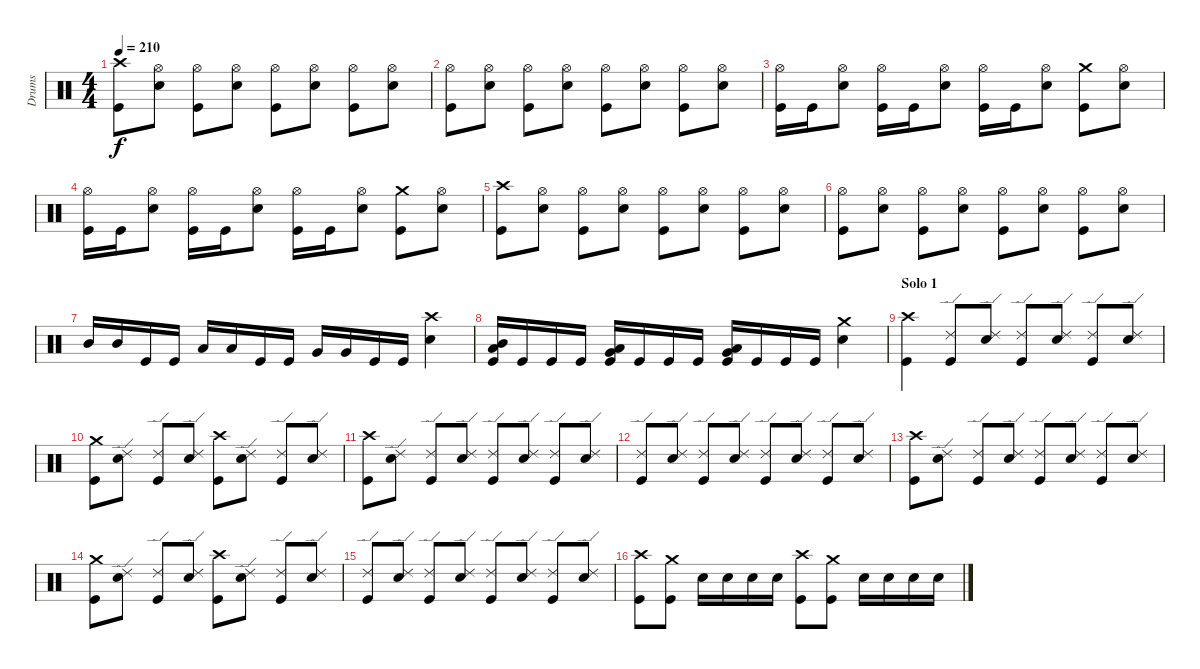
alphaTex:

\track ("Drums" "Drums") {instrument percussion}
\staff {score}
\articulation defaults
\ts (4 4)
\tempo 210
\clef neutral
\ks c
("Crash high (hit)" "Kick (hit)").8{dy f} ("Hi-Hat (open)" "Snare (hit) 2").8 ("Hi-Hat (open)" "Kick (hit)").8 ("Hi-Hat (open)" "Snare (hit) 2").8 ("Hi-Hat (open)" "Kick (hit)").8 ("Hi-Hat (open)" "Snare (hit) 2").8 ("Hi-Hat (open)" "Kick (hit)").8 ("Hi-Hat (open)" "Snare (hit) 2").8 |
("Hi-Hat (open)" "Kick (hit)").8 ("Hi-Hat (open)" "Snare (hit) 2").8 ("Hi-Hat (open)" "Kick (hit)").8 ("Hi-Hat (open)" "Snare (hit) 2").8 ("Hi-Hat (open)" "Kick (hit)").8 ("Hi-Hat (open)" "Snare (hit) 2").8 ("Hi-Hat (open)" "Kick (hit)").8 ("Hi-Hat (open)" "Snare (hit) 2").8 |
("Hi-Hat (open)" "Kick (hit)").16 "Kick (hit)".16 ("Hi-Hat (open)" "Snare (hit) 2").8 ("Hi-Hat (open)" "Kick (hit)").16 "Kick (hit)".16 ("Hi-Hat (open)" "Snare (hit) 2").8 ("Hi-Hat (open)" "Kick (hit)").16 "Kick (hit)".16 ("Hi-Hat (open)" "Snare (hit) 2").8 ("Crash medium (hit)" "Kick (hit)").8 ("Hi-Hat (open)" "Snare (hit) 2").8 |
("Hi-Hat (open)" "Kick (hit)").16 "Kick (hit)".16 ("Hi-Hat (open)" "Snare (hit) 2").8 ("Hi-Hat (open)" "Kick (hit)").16 "Kick (hit)".16 ("Hi-Hat (open)" "Snare (hit) 2").8 ("Hi-Hat (open)" "Kick (hit)").16 "Kick (hit)".16 ("Hi-Hat (open)" "Snare (hit) 2").8 ("Crash medium (hit)" "Kick (hit)").8 ("Hi-Hat (open)" "Snare (hit) 2").8 |
("Crash high (hit)" "Kick (hit)").8 ("Hi-Hat (open)" "Snare (hit) 2").8 ("Hi-Hat (open)" "Kick (hit)").8 ("Hi-Hat (open)" "Snare (hit) 2").8 ("Hi-Hat (open)" "Kick (hit)").8 ("Hi-Hat (open)" "Snare (hit) 2").8 ("Hi-Hat (open)" "Kick (hit)").8 ("Hi-Hat (open)" "Snare (hit) 2").8 |
("Hi-Hat (open)" "Kick (hit)").8 ("Hi-Hat (open)" "Snare (hit) 2").8 ("Hi-Hat (open)" "Kick (hit)").8 ("Hi-Hat (open)" "Snare (hit) 2").8 ("Hi-Hat (open)" "Kick (hit)").8 ("Hi-Hat (open)" "Snare (hit) 2").8 ("Hi-Hat (open)" "Kick (hit)").8 ("Hi-Hat (open)" "Snare (hit) 2").8 |
"Mid Tom (hit)".16 "Mid Tom (hit)".16 "Kick (hit)".16 "Kick (hit)".16 "Low Tom (hit)".16 "Low Tom (hit)".16 "Kick (hit)".16 "Kick (hit)".16 "Very Low Tom (hit)".16 "Very Low Tom (hit)".16 "Kick (hit)".16 "Kick (hit)".16 ("Crash high (hit)" "Snare (hit) 2").4 |
("Mid Tom (hit)" "Low Tom (hit)" "Kick (hit)").16 "Kick (hit)".16 "Kick (hit)".16 "Kick (hit)".16 ("Low Tom (hit)" "Very Low Tom (hit)" "Kick (hit)").16 "Kick (hit)".16 "Kick (hit)".16 "Kick (hit)".16 ("Very Low Tom (hit)" "Low Floor Tom (hit)" "Kick (hit)").16 "Kick (hit)".16 "Kick (hit)".16 "Kick (hit)".16 ("Crash medium (hit)" "Snare (hit) 2").4 |
\section ("" "Solo 1")
("Crash high (hit)" "Kick (hit)").4 ("Ride (edge) 2" "Kick (hit)").8 ("Ride (edge) 2" "Snare (hit) 2").8 ("Ride (edge) 2" "Kick (hit)").8 ("Ride (edge) 2" "Snare (hit) 2").8 ("Ride (edge) 2" "Kick (hit)").8 ("Ride (edge) 2" "Snare (hit) 2").8 |
("Crash medium (hit)" "Kick (hit)").8 ("Ride (edge) 2" "Snare (hit) 2").8 ("Ride (edge) 2" "Kick (hit)").8 ("Ride (edge) 2" "Snare (hit) 2").8 ("Crash high (hit)" "Kick (hit)").8 ("Ride (edge) 2" "Snare (hit) 2").8 ("Ride (edge) 2" "Kick (hit)").8 ("Ride (edge) 2" "Snare (hit) 2").8 |
("Crash high (hit)" "Kick (hit)").8 ("Ride (edge) 2" "Snare (hit) 2").8 ("Ride (edge) 2" "Kick (hit)").8 ("Ride (edge) 2" "Snare (hit) 2").8 ("Ride (edge) 2" "Kick (hit)").8 ("Ride (edge) 2" "Snare (hit) 2").8 ("Ride (edge) 2" "Kick (hit)").8 ("Ride (edge) 2" "Snare (hit) 2").8 |
("Ride (edge) 2" "Kick (hit)").8 ("Ride (edge) 2" "Snare (hit) 2").8 ("Ride (edge) 2" "Kick (hit)").8 ("Ride (edge) 2" "Snare (hit) 2").8 ("Ride (edge) 2" "Kick (hit)").8 ("Ride (edge) 2" "Snare (hit) 2").8 ("Ride (edge) 2" "Kick (hit)").8 ("Ride (edge) 2" "Snare (hit) 2").8 |
("Crash high (hit)" "Kick (hit)").8 ("Ride (edge) 2" "Snare (hit) 2").8 ("Ride (edge) 2" "Kick (hit)").8 ("Ride (edge) 2" "Snare (hit) 2").8 ("Ride (edge) 2" "Kick (hit)").8 ("Ride (edge) 2" "Snare (hit) 2").8 ("Ride (edge) 2" "Kick (hit)").8 ("Ride (edge) 2" "Snare (hit) 2").8 |
("Crash medium (hit)" "Kick (hit)").8 ("Ride (edge) 2" "Snare (hit) 2").8 ("Ride (edge) 2" "Kick (hit)").8 ("Ride (edge) 2" "Snare (hit) 2").8 ("Crash high (hit)" "Kick (hit)").8 ("Ride (edge) 2" "Snare (hit) 2").8 ("Ride (edge) 2" "Kick (hit)").8 ("Ride (edge) 2" "Snare (hit) 2").8 |
("Ride (edge) 2" "Kick (hit)").8 ("Ride (edge) 2" "Snare (hit) 2").8 ("Ride (edge) 2" "Kick (hit)").8 ("Ride (edge) 2" "Snare (hit) 2").8 ("Ride (edge) 2" "Kick (hit)").8 ("Ride (edge) 2" "Snare (hit) 2").8 ("Ride (edge) 2" "Kick (hit)").8 ("Ride (edge) 2" "Snare (hit) 2").8 |
("Crash high (hit)" "Kick (hit)").8 ("Crash medium (hit)" "Kick (hit)").8 "Snare (hit) 2".16 "Snare (hit) 2".16 "Snare (hit) 2".16 "Snare (hit) 2".16 ("Crash high (hit)" "Kick (hit)").8 ("Crash medium (hit)" "Kick (hit)").8 "Snare (hit) 2".16 "Snare (hit) 2".16 "Snare (hit) 2".16 "Snare (hit) 2".16
